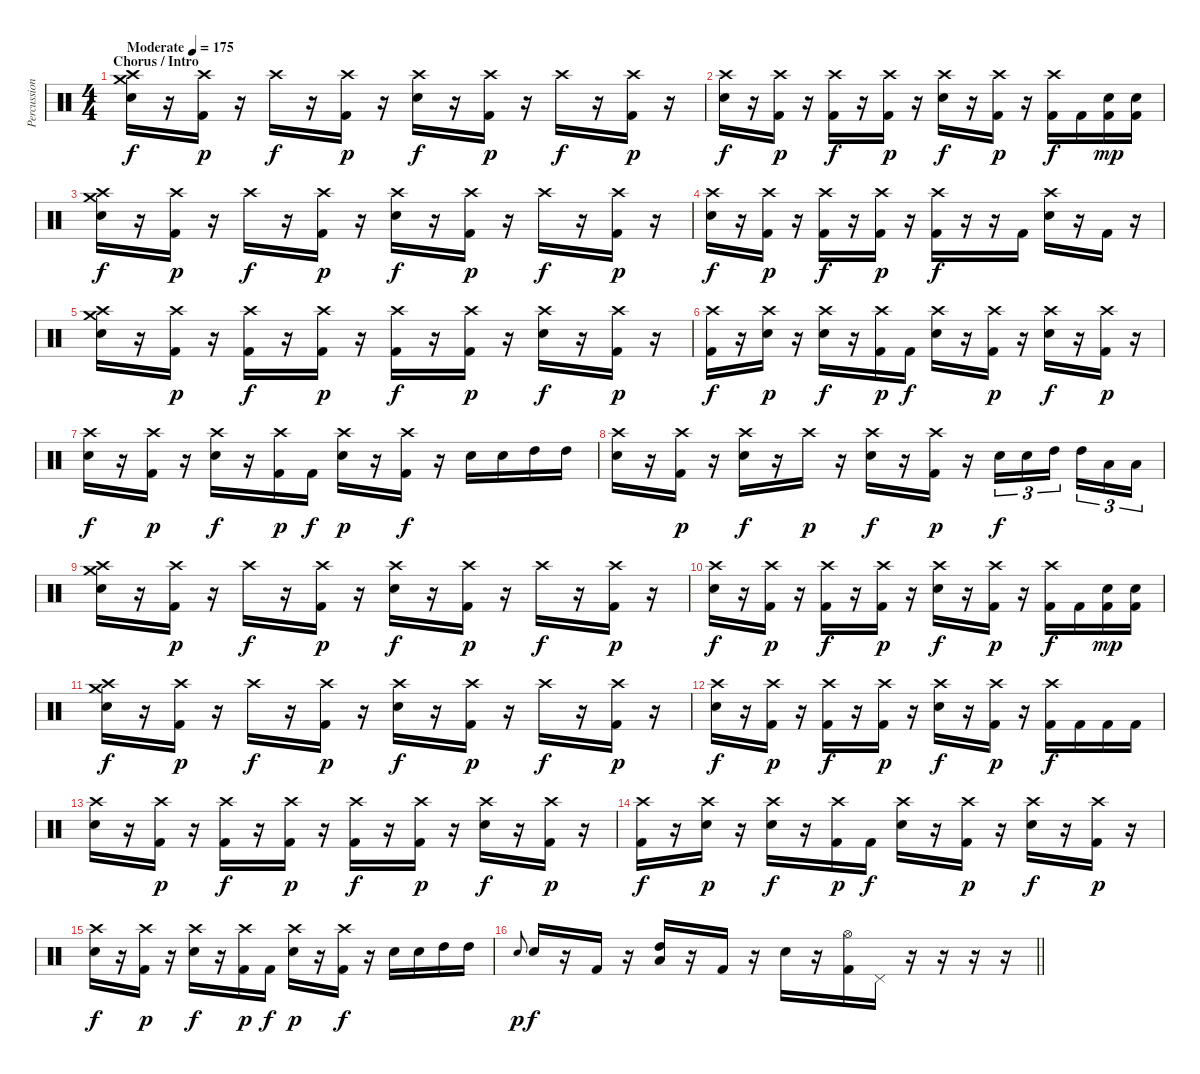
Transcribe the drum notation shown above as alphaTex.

\track ("Percussion" "Percussion") {instrument percussion}
\staff {score}
\articulation defaults
\ts (4 4)
\section ("" "Chorus / Intro")
\tempo (175 "Moderate")
\clef neutral
\ks c
("Crash medium (hit)" "Crash high (hit)" "Electric Snare (hit)").16{dy f} r.16 ("Crash high (hit)" "Kick (hit) 2").16{dy p} r.16 "Crash high (hit)".16{dy f} r.16 ("Crash high (hit)" "Kick (hit) 2").16{dy p} r.16 ("Crash high (hit)" "Electric Snare (hit)").16{dy f} r.16 ("Crash high (hit)" "Kick (hit) 2").16{dy p} r.16 "Crash high (hit)".16{dy f} r.16 ("Crash high (hit)" "Kick (hit) 2").16{dy p} r.16 |
("Crash high (hit)" "Electric Snare (hit)").16{dy f} r.16 ("Crash high (hit)" "Kick (hit) 2").16{dy p} r.16 ("Crash high (hit)" "Kick (hit) 2").16{dy f} r.16 ("Crash high (hit)" "Kick (hit) 2").16{dy p} r.16 ("Crash high (hit)" "Electric Snare (hit)").16{dy f} r.16 ("Crash high (hit)" "Kick (hit) 2").16{dy p} r.16 ("Crash high (hit)" "Kick (hit) 2").16{dy f} "Kick (hit) 2".16 ("Electric Snare (hit)" "Kick (hit) 2").16{dy mp} ("Electric Snare (hit)" "Kick (hit) 2").16 |
("Crash medium (hit)" "Crash high (hit)" "Electric Snare (hit)").16{dy f} r.16 ("Crash high (hit)" "Kick (hit) 2").16{dy p} r.16 "Crash high (hit)".16{dy f} r.16 ("Crash high (hit)" "Kick (hit) 2").16{dy p} r.16 ("Crash high (hit)" "Electric Snare (hit)").16{dy f} r.16 ("Crash high (hit)" "Kick (hit) 2").16{dy p} r.16 "Crash high (hit)".16{dy f} r.16 ("Crash high (hit)" "Kick (hit) 2").16{dy p} r.16 |
("Crash high (hit)" "Electric Snare (hit)").16{dy f} r.16 ("Crash high (hit)" "Kick (hit) 2").16{dy p} r.16 ("Crash high (hit)" "Kick (hit) 2").16{dy f} r.16 ("Crash high (hit)" "Kick (hit) 2").16{dy p} r.16 ("Crash high (hit)" "Kick (hit) 2").16{dy f} r.16 r.16 "Kick (hit) 2".16 ("Crash high (hit)" "Electric Snare (hit)").16 r.16 "Kick (hit) 2".16 r.16 |
("Crash high (hit)" "Crash medium (hit)" "Electric Snare (hit)").16 r.16 ("Crash high (hit)" "Kick (hit) 2").16{dy p} r.16 ("Crash high (hit)" "Kick (hit) 2").16{dy f} r.16 ("Crash high (hit)" "Kick (hit) 2").16{dy p} r.16 ("Crash high (hit)" "Kick (hit) 2").16{dy f} r.16 ("Crash high (hit)" "Kick (hit) 2").16{dy p} r.16 ("Crash high (hit)" "Electric Snare (hit)").16{dy f} r.16 ("Crash high (hit)" "Kick (hit) 2").16{dy p} r.16 |
("Crash high (hit)" "Kick (hit) 2").16{dy f} r.16 ("Crash high (hit)" "Electric Snare (hit)").16{dy p} r.16 ("Crash high (hit)" "Electric Snare (hit)").16{dy f} r.16 ("Crash high (hit)" "Kick (hit) 2").16{dy p} "Kick (hit) 2".16{dy f} ("Crash high (hit)" "Electric Snare (hit)").16 r.16 ("Crash high (hit)" "Kick (hit) 2").16{dy p} r.16 ("Crash high (hit)" "Electric Snare (hit)").16{dy f} r.16 ("Crash high (hit)" "Kick (hit) 2").16{dy p} r.16 |
("Crash high (hit)" "Electric Snare (hit)").16{dy f} r.16 ("Crash high (hit)" "Kick (hit) 2").16{dy p} r.16 ("Crash high (hit)" "Electric Snare (hit)").16{dy f} r.16 ("Crash high (hit)" "Kick (hit) 2").16{dy p} "Kick (hit) 2".16{dy f} ("Crash high (hit)" "Electric Snare (hit)").16{dy p} r.16 ("Crash high (hit)" "Kick (hit) 2").16{dy f} r.16 "Electric Snare (hit)".16 "Electric Snare (hit)".16 "High Tom (hit)".16 "High Tom (hit)".16 |
("Crash high (hit)" "Electric Snare (hit)").16 r.16 ("Crash high (hit)" "Kick (hit) 2").16{dy p} r.16 ("Crash high (hit)" "Electric Snare (hit)").16{dy f} r.16 "Crash high (hit)".16{dy p} r.16 ("Crash high (hit)" "Electric Snare (hit)").16{dy f} r.16 ("Crash high (hit)" "Kick (hit) 2").16{dy p} r.16 "Electric Snare (hit)".16{tu (3 2) dy f} "Electric Snare (hit)".16{tu (3 2)} "High Tom (hit)".16{tu (3 2) beam splitsecondary} "High Tom (hit)".16{tu (3 2)} "Low Floor Tom (hit)".16{tu (3 2)} "Low Floor Tom (hit)".16{tu (3 2)} |
("Crash medium (hit)" "Crash high (hit)" "Electric Snare (hit)").16 r.16 ("Crash high (hit)" "Kick (hit) 2").16{dy p} r.16 "Crash high (hit)".16{dy f} r.16 ("Crash high (hit)" "Kick (hit) 2").16{dy p} r.16 ("Crash high (hit)" "Electric Snare (hit)").16{dy f} r.16 ("Crash high (hit)" "Kick (hit) 2").16{dy p} r.16 "Crash high (hit)".16{dy f} r.16 ("Crash high (hit)" "Kick (hit) 2").16{dy p} r.16 |
("Crash high (hit)" "Electric Snare (hit)").16{dy f} r.16 ("Crash high (hit)" "Kick (hit) 2").16{dy p} r.16 ("Crash high (hit)" "Kick (hit) 2").16{dy f} r.16 ("Crash high (hit)" "Kick (hit) 2").16{dy p} r.16 ("Crash high (hit)" "Electric Snare (hit)").16{dy f} r.16 ("Crash high (hit)" "Kick (hit) 2").16{dy p} r.16 ("Crash high (hit)" "Kick (hit) 2").16{dy f} "Kick (hit) 2".16 ("Electric Snare (hit)" "Kick (hit) 2").16{dy mp} ("Electric Snare (hit)" "Kick (hit) 2").16 |
("Crash medium (hit)" "Crash high (hit)" "Electric Snare (hit)").16{dy f} r.16 ("Crash high (hit)" "Kick (hit) 2").16{dy p} r.16 "Crash high (hit)".16{dy f} r.16 ("Crash high (hit)" "Kick (hit) 2").16{dy p} r.16 ("Crash high (hit)" "Electric Snare (hit)").16{dy f} r.16 ("Crash high (hit)" "Kick (hit) 2").16{dy p} r.16 "Crash high (hit)".16{dy f} r.16 ("Crash high (hit)" "Kick (hit) 2").16{dy p} r.16 |
("Crash high (hit)" "Electric Snare (hit)").16{dy f} r.16 ("Crash high (hit)" "Kick (hit) 2").16{dy p} r.16 ("Crash high (hit)" "Kick (hit) 2").16{dy f} r.16 ("Crash high (hit)" "Kick (hit) 2").16{dy p} r.16 ("Crash high (hit)" "Electric Snare (hit)").16{dy f} r.16 ("Crash high (hit)" "Kick (hit) 2").16{dy p} r.16 ("Crash high (hit)" "Kick (hit) 2").16{dy f} "Kick (hit) 2".16 "Kick (hit) 2".16 "Kick (hit) 2".16 |
("Crash high (hit)" "Electric Snare (hit)").16 r.16 ("Crash high (hit)" "Kick (hit) 2").16{dy p} r.16 ("Crash high (hit)" "Kick (hit) 2").16{dy f} r.16 ("Crash high (hit)" "Kick (hit) 2").16{dy p} r.16 ("Crash high (hit)" "Kick (hit) 2").16{dy f} r.16 ("Crash high (hit)" "Kick (hit) 2").16{dy p} r.16 ("Crash high (hit)" "Electric Snare (hit)").16{dy f} r.16 ("Crash high (hit)" "Kick (hit) 2").16{dy p} r.16 |
("Crash high (hit)" "Kick (hit) 2").16{dy f} r.16 ("Crash high (hit)" "Electric Snare (hit)").16{dy p} r.16 ("Crash high (hit)" "Electric Snare (hit)").16{dy f} r.16 ("Crash high (hit)" "Kick (hit) 2").16{dy p} "Kick (hit) 2".16{dy f} ("Crash high (hit)" "Electric Snare (hit)").16 r.16 ("Crash high (hit)" "Kick (hit) 2").16{dy p} r.16 ("Crash high (hit)" "Electric Snare (hit)").16{dy f} r.16 ("Crash high (hit)" "Kick (hit) 2").16{dy p} r.16 |
("Crash high (hit)" "Electric Snare (hit)").16{dy f} r.16 ("Crash high (hit)" "Kick (hit) 2").16{dy p} r.16 ("Crash high (hit)" "Electric Snare (hit)").16{dy f} r.16 ("Crash high (hit)" "Kick (hit) 2").16{dy p} "Kick (hit) 2".16{dy f} ("Crash high (hit)" "Electric Snare (hit)").16{dy p} r.16 ("Crash high (hit)" "Kick (hit) 2").16{dy f} r.16 "Electric Snare (hit)".16 "Electric Snare (hit)".16 "High Tom (hit)".16 "High Tom (hit)".16 |
\barLineRight lightlight "Electric Snare (hit)".8{gr onbeat dy p} "Electric Snare (hit)".16{dy f}
r.16 "Kick (hit) 2".16 r.16 ("Low Floor Tom (hit)" "High Tom (hit)").16 r.16 "Kick (hit) 2".16 r.16 "Electric Snare (hit)".16 r.16 ("Hi-Hat (open)" "Kick (hit) 2").16 "Pedal Hi-Hat (hit)".16 r.16 r.16 r.16 r.16
